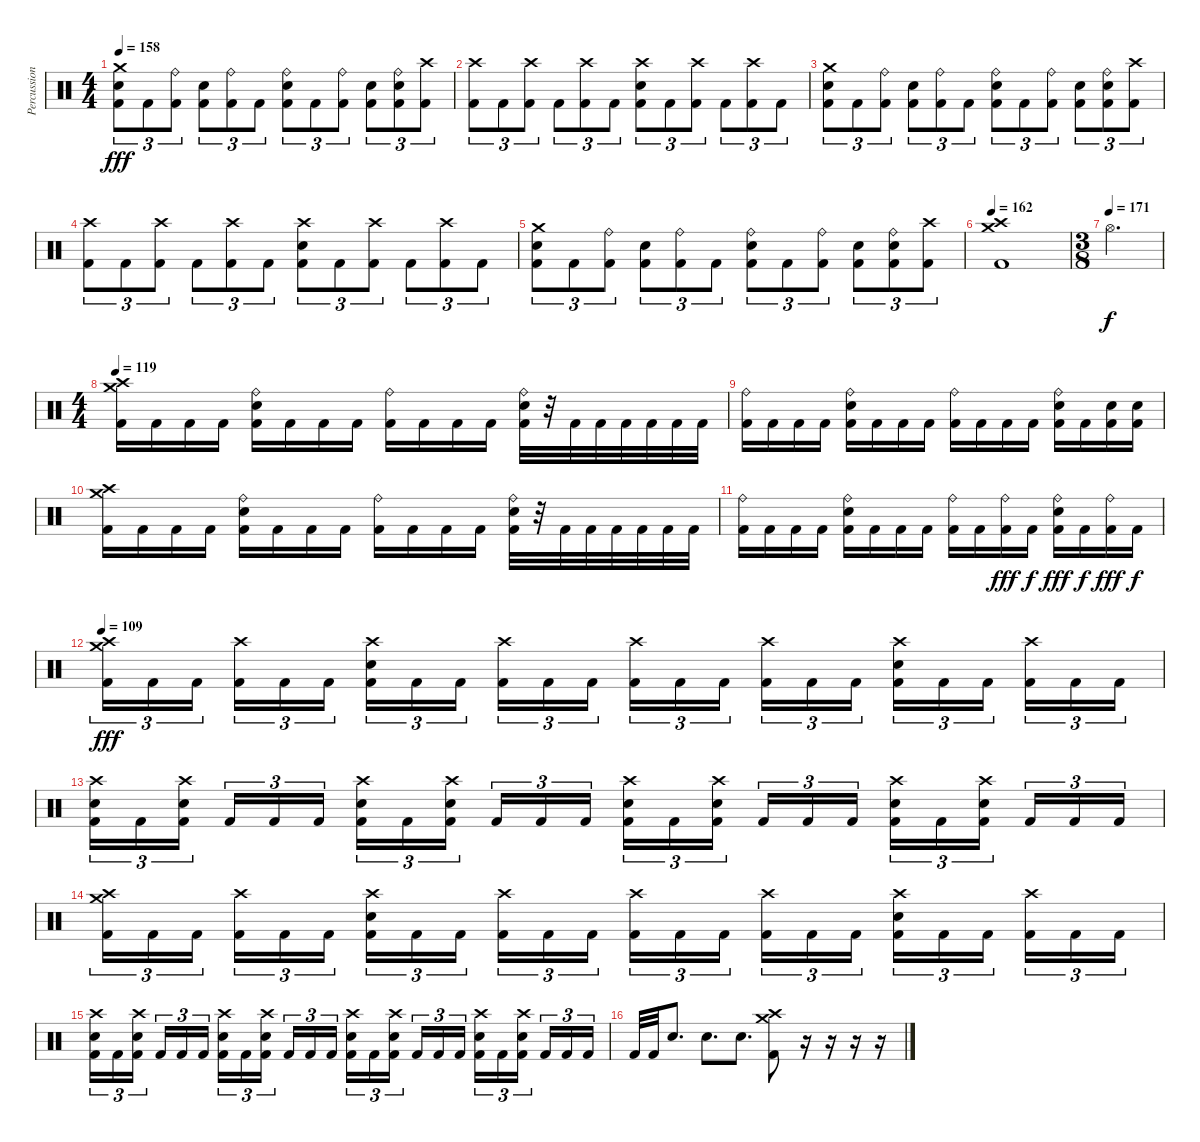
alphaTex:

\track ("Percussion" "Percussion") {instrument percussion}
\staff {score}
\articulation defaults
\ts (4 4)
\tempo 158
\clef neutral
\ks c
("Crash medium (hit)" "Electric Snare (hit)" "Kick (hit) 2").8{tu (3 2) dy fff} "Kick (hit) 2".8{tu (3 2)} ("Ride (bell)" "Kick (hit) 2").8{tu (3 2)} ("Electric Snare (hit)" "Kick (hit) 2").8{tu (3 2)} ("Ride (bell)" "Kick (hit) 2").8{tu (3 2)} "Kick (hit) 2".8{tu (3 2)} ("Ride (bell)" "Electric Snare (hit)" "Kick (hit) 2").8{tu (3 2)} "Kick (hit) 2".8{tu (3 2)} ("Ride (bell)" "Kick (hit) 2").8{tu (3 2)} ("Electric Snare (hit)" "Kick (hit) 2").8{tu (3 2)} ("Ride (bell)" "Electric Snare (hit)" "Kick (hit) 2").8{tu (3 2)} ("Crash high (hit)" "Kick (hit) 2").8{tu (3 2)} |
("Crash high (hit)" "Kick (hit) 2").8{tu (3 2)} "Kick (hit) 2".8{tu (3 2)} ("Crash high (hit)" "Kick (hit) 2").8{tu (3 2)} "Kick (hit) 2".8{tu (3 2)} ("Crash high (hit)" "Kick (hit) 2").8{tu (3 2)} "Kick (hit) 2".8{tu (3 2)} ("Crash high (hit)" "Electric Snare (hit)" "Kick (hit) 2").8{tu (3 2)} "Kick (hit) 2".8{tu (3 2)} ("Crash high (hit)" "Kick (hit) 2").8{tu (3 2)} "Kick (hit) 2".8{tu (3 2)} ("Crash high (hit)" "Kick (hit) 2").8{tu (3 2)} "Kick (hit) 2".8{tu (3 2)} |
("Crash medium (hit)" "Electric Snare (hit)" "Kick (hit) 2").8{tu (3 2)} "Kick (hit) 2".8{tu (3 2)} ("Ride (bell)" "Kick (hit) 2").8{tu (3 2)} ("Electric Snare (hit)" "Kick (hit) 2").8{tu (3 2)} ("Ride (bell)" "Kick (hit) 2").8{tu (3 2)} "Kick (hit) 2".8{tu (3 2)} ("Ride (bell)" "Electric Snare (hit)" "Kick (hit) 2").8{tu (3 2)} "Kick (hit) 2".8{tu (3 2)} ("Ride (bell)" "Kick (hit) 2").8{tu (3 2)} ("Electric Snare (hit)" "Kick (hit) 2").8{tu (3 2)} ("Ride (bell)" "Electric Snare (hit)" "Kick (hit) 2").8{tu (3 2)} ("Crash high (hit)" "Kick (hit) 2").8{tu (3 2)} |
("Crash high (hit)" "Kick (hit) 2").8{tu (3 2)} "Kick (hit) 2".8{tu (3 2)} ("Crash high (hit)" "Kick (hit) 2").8{tu (3 2)} "Kick (hit) 2".8{tu (3 2)} ("Crash high (hit)" "Kick (hit) 2").8{tu (3 2)} "Kick (hit) 2".8{tu (3 2)} ("Crash high (hit)" "Electric Snare (hit)" "Kick (hit) 2").8{tu (3 2)} "Kick (hit) 2".8{tu (3 2)} ("Crash high (hit)" "Kick (hit) 2").8{tu (3 2)} "Kick (hit) 2".8{tu (3 2)} ("Crash high (hit)" "Kick (hit) 2").8{tu (3 2)} "Kick (hit) 2".8{tu (3 2)} |
("Crash medium (hit)" "Electric Snare (hit)" "Kick (hit) 2").8{tu (3 2)} "Kick (hit) 2".8{tu (3 2)} ("Ride (bell)" "Kick (hit) 2").8{tu (3 2)} ("Electric Snare (hit)" "Kick (hit) 2").8{tu (3 2)} ("Ride (bell)" "Kick (hit) 2").8{tu (3 2)} "Kick (hit) 2".8{tu (3 2)} ("Ride (bell)" "Electric Snare (hit)" "Kick (hit) 2").8{tu (3 2)} "Kick (hit) 2".8{tu (3 2)} ("Ride (bell)" "Kick (hit) 2").8{tu (3 2)} ("Electric Snare (hit)" "Kick (hit) 2").8{tu (3 2)} ("Ride (bell)" "Electric Snare (hit)" "Kick (hit) 2").8{tu (3 2)} ("Crash high (hit)" "Kick (hit) 2").8{tu (3 2)} |
\tempo 162
("Crash high (hit)" "Crash medium (hit)" "Kick (hit) 2").1 |
\ts (3 8)
\tempo (171)
"Hi-Hat (open)".4{d dy f} |
\ts (4 4)
\tempo 119
("Crash high (hit)" "Crash medium (hit)" "Kick (hit) 2").16 "Kick (hit) 2".16 "Kick (hit) 2".16 "Kick (hit) 2".16 ("Ride (bell)" "Electric Snare (hit)" "Kick (hit) 2").16 "Kick (hit) 2".16 "Kick (hit) 2".16 "Kick (hit) 2".16 ("Ride (bell)" "Kick (hit) 2").16 "Kick (hit) 2".16 "Kick (hit) 2".16 "Kick (hit) 2".16 ("Ride (bell)" "Electric Snare (hit)" "Kick (hit) 2").32 r.32 "Kick (hit) 2".32 "Kick (hit) 2".32 "Kick (hit) 2".32 "Kick (hit) 2".32 "Kick (hit) 2".32 "Kick (hit) 2".32 |
("Ride (bell)" "Kick (hit) 2").16 "Kick (hit) 2".16 "Kick (hit) 2".16 "Kick (hit) 2".16 ("Ride (bell)" "Electric Snare (hit)" "Kick (hit) 2").16 "Kick (hit) 2".16 "Kick (hit) 2".16 "Kick (hit) 2".16 ("Ride (bell)" "Kick (hit) 2").16 "Kick (hit) 2".16 "Kick (hit) 2".16 "Kick (hit) 2".16 ("Ride (bell)" "Electric Snare (hit)" "Kick (hit) 2").16 "Kick (hit) 2".16 ("Electric Snare (hit)" "Kick (hit) 2").16 ("Electric Snare (hit)" "Kick (hit) 2").16 |
("Crash high (hit)" "Crash medium (hit)" "Kick (hit) 2").16 "Kick (hit) 2".16 "Kick (hit) 2".16 "Kick (hit) 2".16 ("Ride (bell)" "Electric Snare (hit)" "Kick (hit) 2").16 "Kick (hit) 2".16 "Kick (hit) 2".16 "Kick (hit) 2".16 ("Ride (bell)" "Kick (hit) 2").16 "Kick (hit) 2".16 "Kick (hit) 2".16 "Kick (hit) 2".16 ("Ride (bell)" "Electric Snare (hit)" "Kick (hit) 2").32 r.32 "Kick (hit) 2".32 "Kick (hit) 2".32 "Kick (hit) 2".32 "Kick (hit) 2".32 "Kick (hit) 2".32 "Kick (hit) 2".32 |
("Ride (bell)" "Kick (hit) 2").16 "Kick (hit) 2".16 "Kick (hit) 2".16 "Kick (hit) 2".16 ("Ride (bell)" "Electric Snare (hit)" "Kick (hit) 2").16 "Kick (hit) 2".16 "Kick (hit) 2".16 "Kick (hit) 2".16 ("Ride (bell)" "Kick (hit) 2").16 "Kick (hit) 2".16 ("Ride (bell)" "Kick (hit) 2").16{dy fff} "Kick (hit) 2".16{dy f} ("Ride (bell)" "Electric Snare (hit)" "Kick (hit) 2").16{dy fff} "Kick (hit) 2".16{dy f} ("Ride (bell)" "Kick (hit) 2").16{dy fff} "Kick (hit) 2".16{dy f} |
\tempo 109
("Crash high (hit)" "Crash medium (hit)" "Kick (hit) 2").16{tu (3 2) dy fff} "Kick (hit) 2".16{tu (3 2)} "Kick (hit) 2".16{tu (3 2) beam splitsecondary} ("Crash high (hit)" "Kick (hit) 2").16{tu (3 2)} "Kick (hit) 2".16{tu (3 2)} "Kick (hit) 2".16{tu (3 2)} ("Crash high (hit)" "Electric Snare (hit)" "Kick (hit) 2").16{tu (3 2)} "Kick (hit) 2".16{tu (3 2)} "Kick (hit) 2".16{tu (3 2) beam splitsecondary} ("Crash high (hit)" "Kick (hit) 2").16{tu (3 2)} "Kick (hit) 2".16{tu (3 2)} "Kick (hit) 2".16{tu (3 2)} ("Crash high (hit)" "Kick (hit) 2").16{tu (3 2)} "Kick (hit) 2".16{tu (3 2)} "Kick (hit) 2".16{tu (3 2) beam splitsecondary} ("Crash high (hit)" "Kick (hit) 2").16{tu (3 2)} "Kick (hit) 2".16{tu (3 2)} "Kick (hit) 2".16{tu (3 2)} ("Crash high (hit)" "Electric Snare (hit)" "Kick (hit) 2").16{tu (3 2)} "Kick (hit) 2".16{tu (3 2)} "Kick (hit) 2".16{tu (3 2) beam splitsecondary} ("Crash high (hit)" "Kick (hit) 2").16{tu (3 2)} "Kick (hit) 2".16{tu (3 2)} "Kick (hit) 2".16{tu (3 2)} |
("Crash high (hit)" "Electric Snare (hit)" "Kick (hit) 2").16{tu (3 2)} "Kick (hit) 2".16{tu (3 2)} ("Crash high (hit)" "Electric Snare (hit)" "Kick (hit) 2").16{tu (3 2) beam splitsecondary} "Kick (hit) 2".16{tu (3 2)} "Kick (hit) 2".16{tu (3 2)} "Kick (hit) 2".16{tu (3 2)} ("Crash high (hit)" "Electric Snare (hit)" "Kick (hit) 2").16{tu (3 2)} "Kick (hit) 2".16{tu (3 2)} ("Crash high (hit)" "Electric Snare (hit)" "Kick (hit) 2").16{tu (3 2) beam splitsecondary} "Kick (hit) 2".16{tu (3 2)} "Kick (hit) 2".16{tu (3 2)} "Kick (hit) 2".16{tu (3 2)} ("Crash high (hit)" "Electric Snare (hit)" "Kick (hit) 2").16{tu (3 2)} "Kick (hit) 2".16{tu (3 2)} ("Crash high (hit)" "Electric Snare (hit)" "Kick (hit) 2").16{tu (3 2) beam splitsecondary} "Kick (hit) 2".16{tu (3 2)} "Kick (hit) 2".16{tu (3 2)} "Kick (hit) 2".16{tu (3 2)} ("Crash high (hit)" "Electric Snare (hit)" "Kick (hit) 2").16{tu (3 2)} "Kick (hit) 2".16{tu (3 2)} ("Crash high (hit)" "Electric Snare (hit)" "Kick (hit) 2").16{tu (3 2) beam splitsecondary} "Kick (hit) 2".16{tu (3 2)} "Kick (hit) 2".16{tu (3 2)} "Kick (hit) 2".16{tu (3 2)} |
("Crash high (hit)" "Crash medium (hit)" "Kick (hit) 2").16{tu (3 2)} "Kick (hit) 2".16{tu (3 2)} "Kick (hit) 2".16{tu (3 2) beam splitsecondary} ("Crash high (hit)" "Kick (hit) 2").16{tu (3 2)} "Kick (hit) 2".16{tu (3 2)} "Kick (hit) 2".16{tu (3 2)} ("Crash high (hit)" "Electric Snare (hit)" "Kick (hit) 2").16{tu (3 2)} "Kick (hit) 2".16{tu (3 2)} "Kick (hit) 2".16{tu (3 2) beam splitsecondary} ("Crash high (hit)" "Kick (hit) 2").16{tu (3 2)} "Kick (hit) 2".16{tu (3 2)} "Kick (hit) 2".16{tu (3 2)} ("Crash high (hit)" "Kick (hit) 2").16{tu (3 2)} "Kick (hit) 2".16{tu (3 2)} "Kick (hit) 2".16{tu (3 2) beam splitsecondary} ("Crash high (hit)" "Kick (hit) 2").16{tu (3 2)} "Kick (hit) 2".16{tu (3 2)} "Kick (hit) 2".16{tu (3 2)} ("Crash high (hit)" "Electric Snare (hit)" "Kick (hit) 2").16{tu (3 2)} "Kick (hit) 2".16{tu (3 2)} "Kick (hit) 2".16{tu (3 2) beam splitsecondary} ("Crash high (hit)" "Kick (hit) 2").16{tu (3 2)} "Kick (hit) 2".16{tu (3 2)} "Kick (hit) 2".16{tu (3 2)} |
("Crash high (hit)" "Electric Snare (hit)" "Kick (hit) 2").16{tu (3 2)} "Kick (hit) 2".16{tu (3 2)} ("Crash high (hit)" "Electric Snare (hit)" "Kick (hit) 2").16{tu (3 2) beam splitsecondary} "Kick (hit) 2".16{tu (3 2)} "Kick (hit) 2".16{tu (3 2)} "Kick (hit) 2".16{tu (3 2)} ("Crash high (hit)" "Electric Snare (hit)" "Kick (hit) 2").16{tu (3 2)} "Kick (hit) 2".16{tu (3 2)} ("Crash high (hit)" "Electric Snare (hit)" "Kick (hit) 2").16{tu (3 2) beam splitsecondary} "Kick (hit) 2".16{tu (3 2)} "Kick (hit) 2".16{tu (3 2)} "Kick (hit) 2".16{tu (3 2)} ("Crash high (hit)" "Electric Snare (hit)" "Kick (hit) 2").16{tu (3 2)} "Kick (hit) 2".16{tu (3 2)} ("Crash high (hit)" "Electric Snare (hit)" "Kick (hit) 2").16{tu (3 2) beam splitsecondary} "Kick (hit) 2".16{tu (3 2)} "Kick (hit) 2".16{tu (3 2)} "Kick (hit) 2".16{tu (3 2)} ("Crash high (hit)" "Electric Snare (hit)" "Kick (hit) 2").16{tu (3 2)} "Kick (hit) 2".16{tu (3 2)} ("Crash high (hit)" "Electric Snare (hit)" "Kick (hit) 2").16{tu (3 2) beam splitsecondary} "Kick (hit) 2".16{tu (3 2)} "Kick (hit) 2".16{tu (3 2)} "Kick (hit) 2".16{tu (3 2)} |
"Kick (hit) 2".32 "Kick (hit) 2".32 "Electric Snare (hit)".8{d} "Electric Snare (hit)".8{d} "Electric Snare (hit)".8{d} ("Crash high (hit)" "Crash medium (hit)" "Kick (hit) 2").8 r.16 r.16 r.16 r.16
